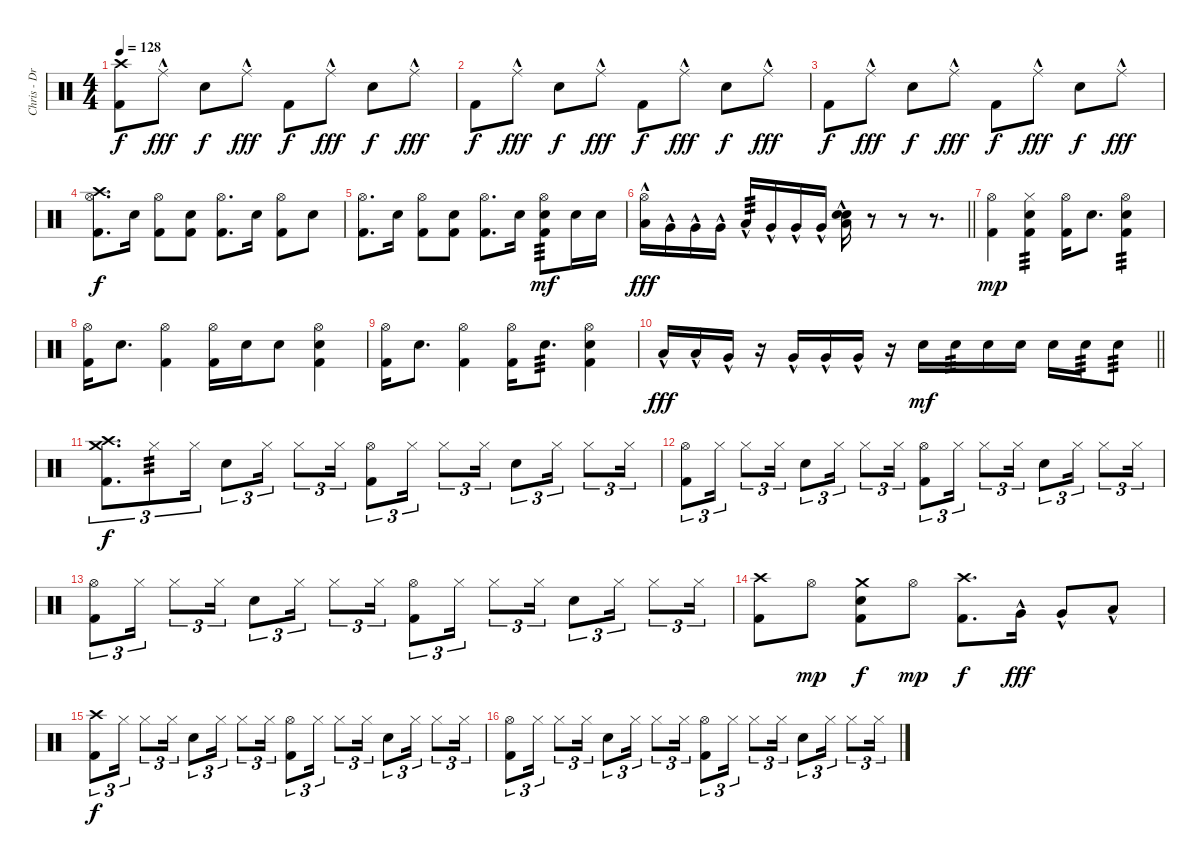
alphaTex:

\track ("Chris - Drums" "Chris - Dr") {instrument percussion}
\staff {score}
\articulation defaults
\ts (4 4)
\tempo 128
\clef neutral
\ks c
("Crash high (hit)" "Kick (hit) 2").8{dy f} "Ride (middle)"{hac}.8{dy fff} "Electric Snare (hit)".8{dy f} "Ride (middle)"{hac}.8{dy fff} "Kick (hit) 2".8{dy f} "Ride (middle)"{hac}.8{dy fff} "Electric Snare (hit)".8{dy f} "Ride (middle)"{hac}.8{dy fff} |
"Kick (hit) 2".8{dy f} "Ride (middle)"{hac}.8{dy fff} "Electric Snare (hit)".8{dy f} "Ride (middle)"{hac}.8{dy fff} "Kick (hit) 2".8{dy f} "Ride (middle)"{hac}.8{dy fff} "Electric Snare (hit)".8{dy f} "Ride (middle)"{hac}.8{dy fff} |
"Kick (hit) 2".8{dy f} "Ride (middle)"{hac}.8{dy fff} "Electric Snare (hit)".8{dy f} "Ride (middle)"{hac}.8{dy fff} "Kick (hit) 2".8{dy f} "Ride (middle)"{hac}.8{dy fff} "Electric Snare (hit)".8{dy f} "Ride (middle)"{hac}.8{dy fff} |
("Crash high (hit)" "Hi-Hat (open)" "Kick (hit) 2").8{d dy f} "Electric Snare (hit)".16 ("Hi-Hat (open)" "Kick (hit) 2").8 ("Electric Snare (hit)" "Kick (hit) 2").8 ("Hi-Hat (open)" "Kick (hit) 2").8{d} "Electric Snare (hit)".16 ("Hi-Hat (open)" "Kick (hit) 2").8 "Electric Snare (hit)".8 |
("Hi-Hat (open)" "Kick (hit) 2").8{d} "Electric Snare (hit)".16 ("Hi-Hat (open)" "Kick (hit) 2").8 ("Electric Snare (hit)" "Kick (hit) 2").8 ("Hi-Hat (open)" "Kick (hit) 2").8{d} "Electric Snare (hit)".16 ("Hi-Hat (open)" "Electric Snare (hit)" "Kick (hit) 2").8{tp 3 dy mf} "Electric Snare (hit)".16 "Electric Snare (hit)".16 |
\barLineRight lightlight
("Hi-Hat (open)" "Low Tom (hit)"{hac}).16{dy fff} "Very Low Tom (hit)"{hac}.16 "Very Low Tom (hit)"{hac}.16 "Very Low Tom (hit)"{hac}.16 "Low Tom (hit)"{hac}.16{tp 3} "Very Low Tom (hit)"{hac}.16 "Very Low Tom (hit)"{hac}.16 "Very Low Tom (hit)"{hac}.16 ("Electric Snare (hit)" "Electric Snare (hit)" "Low Tom (hit)"{hac}).16 r.8 r.8 r.8{d} |
("Hi-Hat (open)" "Kick (hit) 2").4{dy mp} ("Hi-Hat (closed)" "Electric Snare (hit)" "Kick (hit) 2").4{tp 3} ("Hi-Hat (open)" "Kick (hit) 2").16 "Electric Snare (hit)".8{d} ("Hi-Hat (open)" "Electric Snare (hit)" "Kick (hit) 2").4{tp 3} |
("Hi-Hat (open)" "Kick (hit) 2").16 "Electric Snare (hit)".8{d} ("Hi-Hat (open)" "Kick (hit) 2").4 ("Hi-Hat (open)" "Kick (hit) 2").16 "Electric Snare (hit)".16 "Electric Snare (hit)".8 ("Hi-Hat (open)" "Electric Snare (hit)" "Kick (hit) 2").4 |
("Hi-Hat (open)" "Kick (hit) 2").16 "Electric Snare (hit)".8{d} ("Hi-Hat (open)" "Kick (hit) 2").4 ("Hi-Hat (open)" "Kick (hit) 2").16 "Electric Snare (hit)".8{d tp 3} ("Hi-Hat (open)" "Electric Snare (hit)" "Kick (hit) 2").4 |
\barLineRight lightlight "Low Tom (hit)"{hac}.16{dy fff} "Low Tom (hit)"{hac}.16 "Very Low Tom (hit)"{hac}.16
r.16 "Very Low Tom (hit)"{hac}.16 "Very Low Tom (hit)"{hac}.16 "Very Low Tom (hit)"{hac}.16 r.16 "Electric Snare (hit)".16{dy mf} "Electric Snare (hit)".16{tp 3} "Electric Snare (hit)".16 "Electric Snare (hit)".16 "Electric Snare (hit)".16 "Electric Snare (hit)".16{tp 3} "Electric Snare (hit)".8{tp 3} |
("Crash high (hit)" "Crash medium (hit)" "Kick (hit) 2").8{d tu (3 2) dy f} "Hi-Hat (closed)".8{tu (3 2) tp 3} "Hi-Hat (closed)".16{tu (3 2)} "Electric Snare (hit)".8{tu (3 2)} "Hi-Hat (closed)".16{tu (3 2)} "Hi-Hat (closed)".8{tu (3 2)} "Hi-Hat (closed)".16{tu (3 2)} ("Hi-Hat (open)" "Kick (hit) 2").8{tu (3 2)} "Hi-Hat (closed)".16{tu (3 2)} "Hi-Hat (closed)".8{tu (3 2)} "Hi-Hat (closed)".16{tu (3 2)} "Electric Snare (hit)".8{tu (3 2)} "Hi-Hat (closed)".16{tu (3 2)} "Hi-Hat (closed)".8{tu (3 2)} "Hi-Hat (closed)".16{tu (3 2)} |
("Hi-Hat (open)" "Kick (hit) 2").8{tu (3 2)} "Hi-Hat (closed)".16{tu (3 2)} "Hi-Hat (closed)".8{tu (3 2)} "Hi-Hat (closed)".16{tu (3 2)} "Electric Snare (hit)".8{tu (3 2)} "Hi-Hat (closed)".16{tu (3 2)} "Hi-Hat (closed)".8{tu (3 2)} "Hi-Hat (closed)".16{tu (3 2)} ("Hi-Hat (open)" "Kick (hit) 2").8{tu (3 2)} "Hi-Hat (closed)".16{tu (3 2)} "Hi-Hat (closed)".8{tu (3 2)} "Hi-Hat (closed)".16{tu (3 2)} "Electric Snare (hit)".8{tu (3 2)} "Hi-Hat (closed)".16{tu (3 2)} "Hi-Hat (closed)".8{tu (3 2)} "Hi-Hat (closed)".16{tu (3 2)} |
("Hi-Hat (open)" "Kick (hit) 2").8{tu (3 2)} "Hi-Hat (closed)".16{tu (3 2)} "Hi-Hat (closed)".8{tu (3 2)} "Hi-Hat (closed)".16{tu (3 2)} "Electric Snare (hit)".8{tu (3 2)} "Hi-Hat (closed)".16{tu (3 2)} "Hi-Hat (closed)".8{tu (3 2)} "Hi-Hat (closed)".16{tu (3 2)} ("Hi-Hat (open)" "Kick (hit) 2").8{tu (3 2)} "Hi-Hat (closed)".16{tu (3 2)} "Hi-Hat (closed)".8{tu (3 2)} "Hi-Hat (closed)".16{tu (3 2)} "Electric Snare (hit)".8{tu (3 2)} "Hi-Hat (closed)".16{tu (3 2)} "Hi-Hat (closed)".8{tu (3 2)} "Hi-Hat (closed)".16{tu (3 2)} |
("Crash high (hit)" "Kick (hit) 2").8 "Hi-Hat (open)".8{dy mp} ("Crash medium (hit)" "Electric Snare (hit)" "Kick (hit) 2").8{dy f} "Hi-Hat (open)".8{dy mp} ("Crash high (hit)" "Kick (hit) 2").8{d dy f} "Very Low Tom (hit)"{hac}.16{dy fff} "Very Low Tom (hit)"{hac}.8 "Low Floor Tom (hit)"{hac}.8 |
("Crash high (hit)" "Kick (hit) 2").8{tu (3 2) dy f} "Hi-Hat (closed)".16{tu (3 2)} "Hi-Hat (closed)".8{tu (3 2)} "Hi-Hat (closed)".16{tu (3 2)} "Electric Snare (hit)".8{tu (3 2)} "Hi-Hat (closed)".16{tu (3 2)} "Hi-Hat (closed)".8{tu (3 2)} "Hi-Hat (closed)".16{tu (3 2)} ("Hi-Hat (open)" "Kick (hit) 2").8{tu (3 2)} "Hi-Hat (closed)".16{tu (3 2)} "Hi-Hat (closed)".8{tu (3 2)} "Hi-Hat (closed)".16{tu (3 2)} "Electric Snare (hit)".8{tu (3 2)} "Hi-Hat (closed)".16{tu (3 2)} "Hi-Hat (closed)".8{tu (3 2)} "Hi-Hat (closed)".16{tu (3 2)} |
("Hi-Hat (open)" "Kick (hit) 2").8{tu (3 2)} "Hi-Hat (closed)".16{tu (3 2)} "Hi-Hat (closed)".8{tu (3 2)} "Hi-Hat (closed)".16{tu (3 2)} "Electric Snare (hit)".8{tu (3 2)} "Hi-Hat (closed)".16{tu (3 2)} "Hi-Hat (closed)".8{tu (3 2)} "Hi-Hat (closed)".16{tu (3 2)} ("Hi-Hat (open)" "Kick (hit) 2").8{tu (3 2)} "Hi-Hat (closed)".16{tu (3 2)} "Hi-Hat (closed)".8{tu (3 2)} "Hi-Hat (closed)".16{tu (3 2)} "Electric Snare (hit)".8{tu (3 2)} "Hi-Hat (closed)".16{tu (3 2)} "Hi-Hat (closed)".8{tu (3 2)} "Hi-Hat (closed)".16{tu (3 2)}
